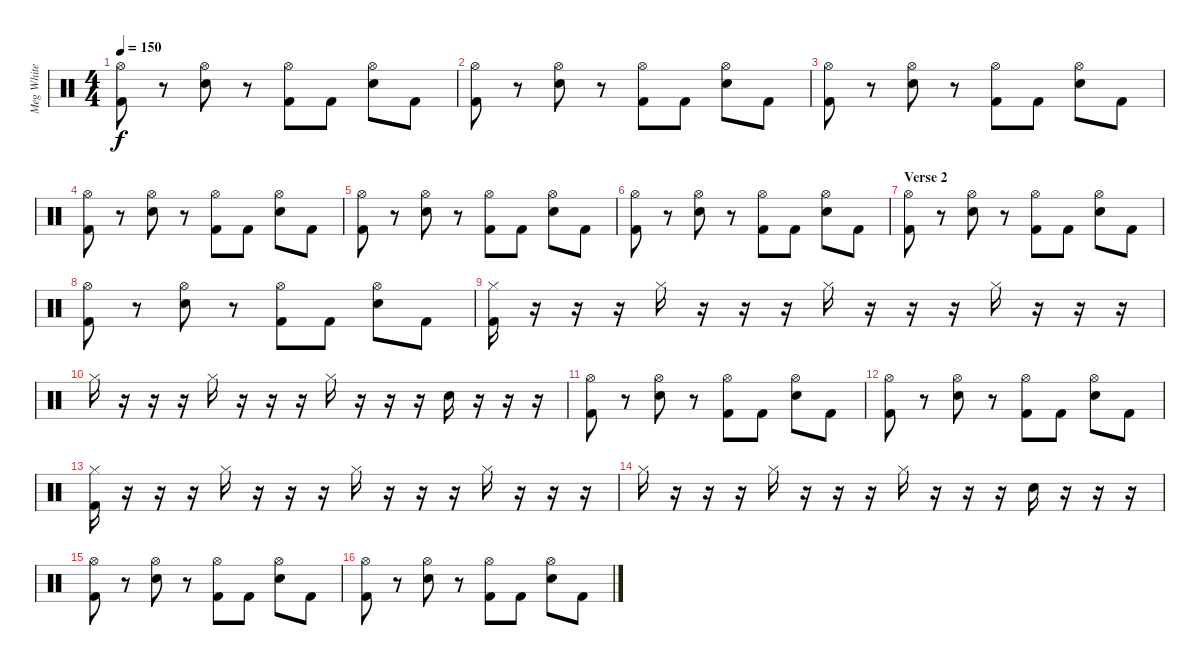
\track ("Meg White - Drums" "Meg White ") {instrument percussion}
\staff {score}
\articulation defaults
\ts (4 4)
\tempo 150
\clef neutral
\ks c
("Hi-Hat (open)" "Kick (hit) 2").8{dy f} r.8 ("Hi-Hat (open)" "Electric Snare (hit)").8 r.8 ("Hi-Hat (open)" "Kick (hit) 2").8 "Kick (hit) 2".8 ("Hi-Hat (open)" "Electric Snare (hit)").8 "Kick (hit) 2".8 |
("Hi-Hat (open)" "Kick (hit) 2").8 r.8 ("Hi-Hat (open)" "Electric Snare (hit)").8 r.8 ("Hi-Hat (open)" "Kick (hit) 2").8 "Kick (hit) 2".8 ("Hi-Hat (open)" "Electric Snare (hit)").8 "Kick (hit) 2".8 |
("Hi-Hat (open)" "Kick (hit) 2").8 r.8 ("Hi-Hat (open)" "Electric Snare (hit)").8 r.8 ("Hi-Hat (open)" "Kick (hit) 2").8 "Kick (hit) 2".8 ("Hi-Hat (open)" "Electric Snare (hit)").8 "Kick (hit) 2".8 |
("Hi-Hat (open)" "Kick (hit) 2").8 r.8 ("Hi-Hat (open)" "Electric Snare (hit)").8 r.8 ("Hi-Hat (open)" "Kick (hit) 2").8 "Kick (hit) 2".8 ("Hi-Hat (open)" "Electric Snare (hit)").8 "Kick (hit) 2".8 |
("Hi-Hat (open)" "Kick (hit) 2").8 r.8 ("Hi-Hat (open)" "Electric Snare (hit)").8 r.8 ("Hi-Hat (open)" "Kick (hit) 2").8 "Kick (hit) 2".8 ("Hi-Hat (open)" "Electric Snare (hit)").8 "Kick (hit) 2".8 |
("Hi-Hat (open)" "Kick (hit) 2").8 r.8 ("Hi-Hat (open)" "Electric Snare (hit)").8 r.8 ("Hi-Hat (open)" "Kick (hit) 2").8 "Kick (hit) 2".8 ("Hi-Hat (open)" "Electric Snare (hit)").8 "Kick (hit) 2".8 |
\section ("" "Verse 2")
("Hi-Hat (open)" "Kick (hit) 2").8 r.8 ("Hi-Hat (open)" "Electric Snare (hit)").8 r.8 ("Hi-Hat (open)" "Kick (hit) 2").8 "Kick (hit) 2".8 ("Hi-Hat (open)" "Electric Snare (hit)").8 "Kick (hit) 2".8 |
("Hi-Hat (open)" "Kick (hit) 2").8 r.8 ("Hi-Hat (open)" "Electric Snare (hit)").8 r.8 ("Hi-Hat (open)" "Kick (hit) 2").8 "Kick (hit) 2".8 ("Hi-Hat (open)" "Electric Snare (hit)").8 "Kick (hit) 2".8 |
("Hi-Hat (closed)" "Kick (hit) 2").16 r.16 r.16 r.16 "Hi-Hat (closed)".16 r.16 r.16 r.16 "Hi-Hat (closed)".16 r.16 r.16 r.16 "Hi-Hat (closed)".16 r.16 r.16 r.16 |
"Hi-Hat (closed)".16 r.16 r.16 r.16 "Hi-Hat (closed)".16 r.16 r.16 r.16 "Hi-Hat (closed)".16 r.16 r.16 r.16 "Electric Snare (hit)".16 r.16 r.16 r.16 |
("Hi-Hat (open)" "Kick (hit) 2").8 r.8 ("Hi-Hat (open)" "Electric Snare (hit)").8 r.8 ("Hi-Hat (open)" "Kick (hit) 2").8 "Kick (hit) 2".8 ("Hi-Hat (open)" "Electric Snare (hit)").8 "Kick (hit) 2".8 |
("Hi-Hat (open)" "Kick (hit) 2").8 r.8 ("Hi-Hat (open)" "Electric Snare (hit)").8 r.8 ("Hi-Hat (open)" "Kick (hit) 2").8 "Kick (hit) 2".8 ("Hi-Hat (open)" "Electric Snare (hit)").8 "Kick (hit) 2".8 |
("Hi-Hat (closed)" "Kick (hit) 2").16 r.16 r.16 r.16 "Hi-Hat (closed)".16 r.16 r.16 r.16 "Hi-Hat (closed)".16 r.16 r.16 r.16 "Hi-Hat (closed)".16 r.16 r.16 r.16 |
"Hi-Hat (closed)".16 r.16 r.16 r.16 "Hi-Hat (closed)".16 r.16 r.16 r.16 "Hi-Hat (closed)".16 r.16 r.16 r.16 "Electric Snare (hit)".16 r.16 r.16 r.16 |
("Hi-Hat (open)" "Kick (hit) 2").8 r.8 ("Hi-Hat (open)" "Electric Snare (hit)").8 r.8 ("Hi-Hat (open)" "Kick (hit) 2").8 "Kick (hit) 2".8 ("Hi-Hat (open)" "Electric Snare (hit)").8 "Kick (hit) 2".8 |
("Hi-Hat (open)" "Kick (hit) 2").8 r.8 ("Hi-Hat (open)" "Electric Snare (hit)").8 r.8 ("Hi-Hat (open)" "Kick (hit) 2").8 "Kick (hit) 2".8 ("Hi-Hat (open)" "Electric Snare (hit)").8 "Kick (hit) 2".8
